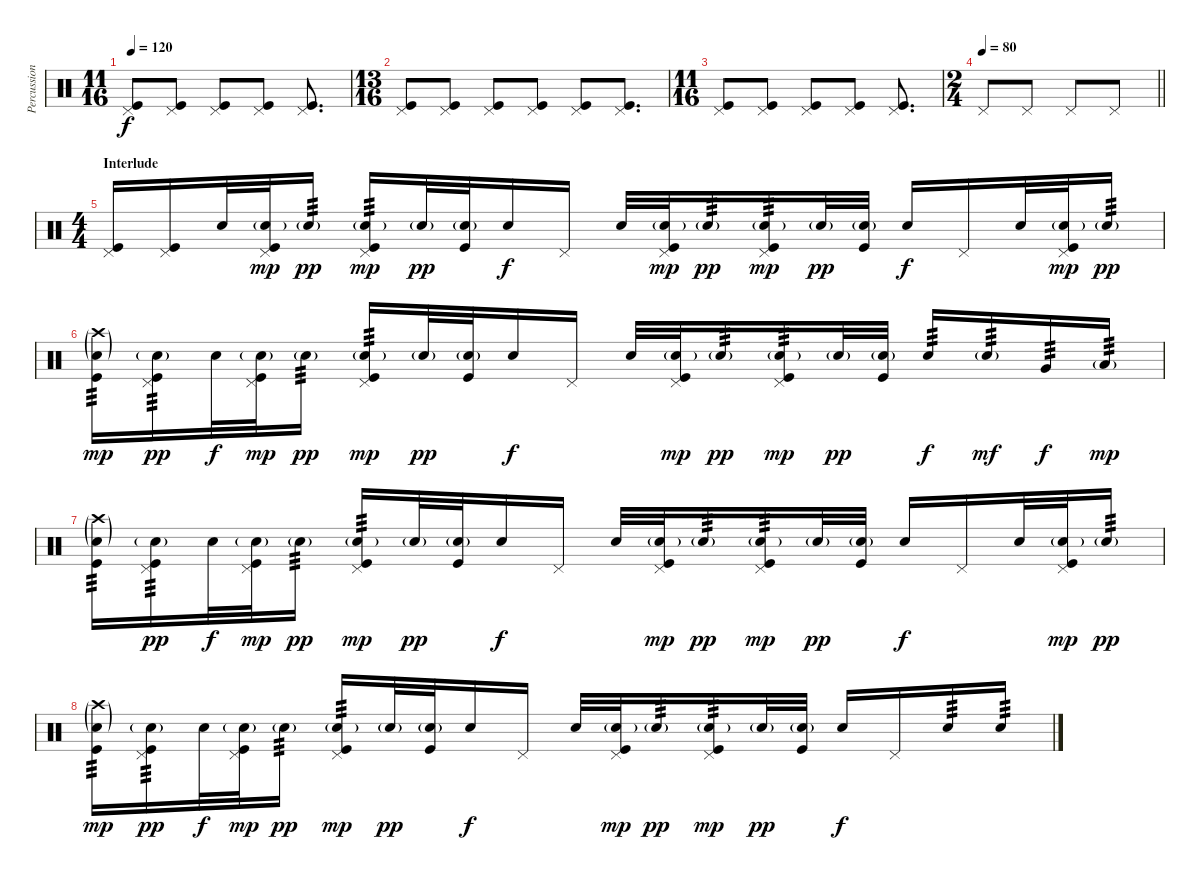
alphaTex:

\track ("Percussion" "Percussion") {instrument percussion}
\staff {score}
\articulation defaults
\ts (11 16)
\tempo 120
\clef neutral
\ks c
("Pedal Hi-Hat (hit)" "Kick (hit)").8{dy f} ("Pedal Hi-Hat (hit)" "Kick (hit)").8 ("Pedal Hi-Hat (hit)" "Kick (hit)").8 ("Pedal Hi-Hat (hit)" "Kick (hit)").8 ("Pedal Hi-Hat (hit)" "Kick (hit)").8{d} |
\ts (13 16)
("Pedal Hi-Hat (hit)" "Kick (hit)").8 ("Pedal Hi-Hat (hit)" "Kick (hit)").8 ("Pedal Hi-Hat (hit)" "Kick (hit)").8 ("Pedal Hi-Hat (hit)" "Kick (hit)").8 ("Pedal Hi-Hat (hit)" "Kick (hit)").8 ("Pedal Hi-Hat (hit)" "Kick (hit)").8{d} |
\ts (11 16)
("Pedal Hi-Hat (hit)" "Kick (hit)").8 ("Pedal Hi-Hat (hit)" "Kick (hit)").8 ("Pedal Hi-Hat (hit)" "Kick (hit)").8 ("Pedal Hi-Hat (hit)" "Kick (hit)").8 ("Pedal Hi-Hat (hit)" "Kick (hit)").8{d} |
\ts (2 4)
\tempo 80
\barLineRight lightlight "Pedal Hi-Hat (hit)".8 "Pedal Hi-Hat (hit)".8 "Pedal Hi-Hat (hit)".8 "Pedal Hi-Hat (hit)".8
|
\ts (4 4)
\section ("" "Interlude")
("Pedal Hi-Hat (hit)" "Kick (hit)").16 ("Pedal Hi-Hat (hit)" "Kick (hit)").16 "Snare (hit) 2".32 ("Pedal Hi-Hat (hit)" "Snare (hit) 2"{g} "Kick (hit)").32{dy mp} "Snare (hit) 2"{g}.16{tp 3 dy pp} ("Pedal Hi-Hat (hit)" "Snare (hit) 2"{g} "Kick (hit)").16{tp 3 dy mp} "Snare (hit) 2"{g}.32{dy pp} ("Snare (hit) 2"{g} "Kick (hit)").32 "Snare (hit) 2".16{dy f} "Pedal Hi-Hat (hit)".16 "Snare (hit) 2".32 ("Pedal Hi-Hat (hit)" "Snare (hit) 2"{g} "Kick (hit)").32{dy mp} "Snare (hit) 2"{g}.16{tp 3 dy pp} ("Pedal Hi-Hat (hit)" "Snare (hit) 2"{g} "Kick (hit)").16{tp 3 dy mp} "Snare (hit) 2"{g}.32{dy pp} ("Snare (hit) 2"{g} "Kick (hit)").32 "Snare (hit) 2".16{dy f} "Pedal Hi-Hat (hit)".16 "Snare (hit) 2".32 ("Pedal Hi-Hat (hit)" "Snare (hit) 2"{g} "Kick (hit)").32{dy mp} "Snare (hit) 2"{g}.16{tp 3 dy pp} |
("Crash high (hit)"{g} "Snare (hit) 2"{g} "Kick (hit)").16{tp 3 dy mp} ("Pedal Hi-Hat (hit)" "Snare (hit) 2"{g} "Kick (hit)").16{tp 3 dy pp} "Snare (hit) 2".32{dy f} ("Pedal Hi-Hat (hit)" "Snare (hit) 2"{g} "Kick (hit)").32{dy mp} "Snare (hit) 2"{g}.16{tp 3 dy pp} ("Pedal Hi-Hat (hit)" "Snare (hit) 2"{g} "Kick (hit)").16{tp 3 dy mp} "Snare (hit) 2"{g}.32{dy pp} ("Snare (hit) 2"{g} "Kick (hit)").32 "Snare (hit) 2".16{dy f} "Pedal Hi-Hat (hit)".16 "Snare (hit) 2".32 ("Pedal Hi-Hat (hit)" "Snare (hit) 2"{g} "Kick (hit)").32{dy mp} "Snare (hit) 2"{g}.16{tp 3 dy pp} ("Pedal Hi-Hat (hit)" "Snare (hit) 2"{g} "Kick (hit)").16{tp 3 dy mp} "Snare (hit) 2"{g}.32{dy pp} ("Snare (hit) 2"{g} "Kick (hit)").32 "Snare (hit) 2".16{tp 3 dy f} "Snare (hit) 2"{g}.16{tp 3 dy mf} "Very Low Tom (hit)".16{tp 3 dy f} "Low Floor Tom (hit)"{g}.16{tp 3 dy mp} |
("Crash high (hit)"{g} "Snare (hit) 2"{g} "Kick (hit)").16{tp 3} ("Pedal Hi-Hat (hit)" "Snare (hit) 2"{g} "Kick (hit)").16{tp 3 dy pp} "Snare (hit) 2".32{dy f} ("Pedal Hi-Hat (hit)" "Snare (hit) 2"{g} "Kick (hit)").32{dy mp} "Snare (hit) 2"{g}.16{tp 3 dy pp} ("Pedal Hi-Hat (hit)" "Snare (hit) 2"{g} "Kick (hit)").16{tp 3 dy mp} "Snare (hit) 2"{g}.32{dy pp} ("Snare (hit) 2"{g} "Kick (hit)").32 "Snare (hit) 2".16{dy f} "Pedal Hi-Hat (hit)".16 "Snare (hit) 2".32 ("Pedal Hi-Hat (hit)" "Snare (hit) 2"{g} "Kick (hit)").32{dy mp} "Snare (hit) 2"{g}.16{tp 3 dy pp} ("Pedal Hi-Hat (hit)" "Snare (hit) 2"{g} "Kick (hit)").16{tp 3 dy mp} "Snare (hit) 2"{g}.32{dy pp} ("Snare (hit) 2"{g} "Kick (hit)").32 "Snare (hit) 2".16{dy f} "Pedal Hi-Hat (hit)".16 "Snare (hit) 2".32 ("Pedal Hi-Hat (hit)" "Snare (hit) 2"{g} "Kick (hit)").32{dy mp} "Snare (hit) 2"{g}.16{tp 3 dy pp} |
("Crash high (hit)"{g} "Snare (hit) 2"{g} "Kick (hit)").16{tp 3 dy mp} ("Pedal Hi-Hat (hit)" "Snare (hit) 2"{g} "Kick (hit)").16{tp 3 dy pp} "Snare (hit) 2".32{dy f} ("Pedal Hi-Hat (hit)" "Snare (hit) 2"{g} "Kick (hit)").32{dy mp} "Snare (hit) 2"{g}.16{tp 3 dy pp} ("Pedal Hi-Hat (hit)" "Snare (hit) 2"{g} "Kick (hit)").16{tp 3 dy mp} "Snare (hit) 2"{g}.32{dy pp} ("Snare (hit) 2"{g} "Kick (hit)").32 "Snare (hit) 2".16{dy f} "Pedal Hi-Hat (hit)".16 "Snare (hit) 2".32 ("Pedal Hi-Hat (hit)" "Snare (hit) 2"{g} "Kick (hit)").32{dy mp} "Snare (hit) 2"{g}.16{tp 3 dy pp} ("Pedal Hi-Hat (hit)" "Snare (hit) 2"{g} "Kick (hit)").16{tp 3 dy mp} "Snare (hit) 2"{g}.32{dy pp} ("Snare (hit) 2"{g} "Kick (hit)").32 "Snare (hit) 2".16{dy f} "Pedal Hi-Hat (hit)".16 "Snare (hit) 2".16{tp 3} "Snare (hit) 2".16{tp 3}
